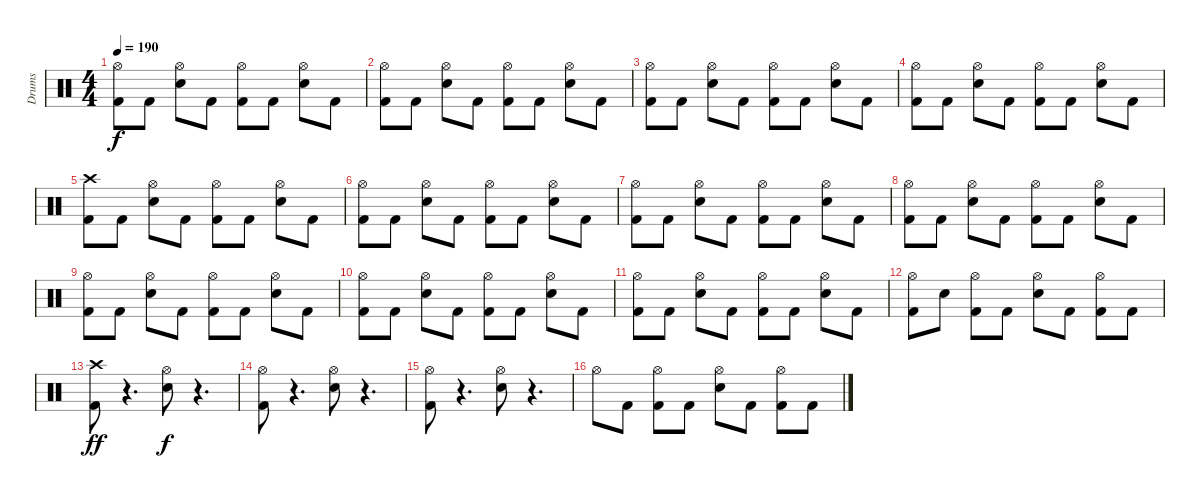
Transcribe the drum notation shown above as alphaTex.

\track ("Drums" "Drums") {instrument percussion}
\staff {score}
\articulation defaults
\ts (4 4)
\tempo 190
\clef neutral
\ks c
("Kick (hit) 2" "Hi-Hat (open)").8{dy f} "Kick (hit) 2".8 ("Snare (hit) 2" "Hi-Hat (open)").8 "Kick (hit) 2".8 ("Kick (hit) 2" "Hi-Hat (open)").8 "Kick (hit) 2".8 ("Snare (hit) 2" "Hi-Hat (open)").8 "Kick (hit) 2".8 |
("Kick (hit) 2" "Hi-Hat (open)").8 "Kick (hit) 2".8 ("Snare (hit) 2" "Hi-Hat (open)").8 "Kick (hit) 2".8 ("Kick (hit) 2" "Hi-Hat (open)").8 "Kick (hit) 2".8 ("Snare (hit) 2" "Hi-Hat (open)").8 "Kick (hit) 2".8 |
("Kick (hit) 2" "Hi-Hat (open)").8 "Kick (hit) 2".8 ("Snare (hit) 2" "Hi-Hat (open)").8 "Kick (hit) 2".8 ("Kick (hit) 2" "Hi-Hat (open)").8 "Kick (hit) 2".8 ("Snare (hit) 2" "Hi-Hat (open)").8 "Kick (hit) 2".8 |
("Kick (hit) 2" "Hi-Hat (open)").8 "Kick (hit) 2".8 ("Snare (hit) 2" "Hi-Hat (open)").8 "Kick (hit) 2".8 ("Kick (hit) 2" "Hi-Hat (open)").8 "Kick (hit) 2".8 ("Snare (hit) 2" "Hi-Hat (open)").8 "Kick (hit) 2".8 |
("Kick (hit) 2" "Crash high (hit)").8 "Kick (hit) 2".8 ("Snare (hit) 2" "Hi-Hat (open)").8 "Kick (hit) 2".8 ("Kick (hit) 2" "Hi-Hat (open)").8 "Kick (hit) 2".8 ("Snare (hit) 2" "Hi-Hat (open)").8 "Kick (hit) 2".8 |
("Kick (hit) 2" "Hi-Hat (open)").8 "Kick (hit) 2".8 ("Snare (hit) 2" "Hi-Hat (open)").8 "Kick (hit) 2".8 ("Kick (hit) 2" "Hi-Hat (open)").8 "Kick (hit) 2".8 ("Snare (hit) 2" "Hi-Hat (open)").8 "Kick (hit) 2".8 |
("Kick (hit) 2" "Hi-Hat (open)").8 "Kick (hit) 2".8 ("Snare (hit) 2" "Hi-Hat (open)").8 "Kick (hit) 2".8 ("Kick (hit) 2" "Hi-Hat (open)").8 "Kick (hit) 2".8 ("Snare (hit) 2" "Hi-Hat (open)").8 "Kick (hit) 2".8 |
("Kick (hit) 2" "Hi-Hat (open)").8 "Kick (hit) 2".8 ("Snare (hit) 2" "Hi-Hat (open)").8 "Kick (hit) 2".8 ("Kick (hit) 2" "Hi-Hat (open)").8 "Kick (hit) 2".8 ("Snare (hit) 2" "Hi-Hat (open)").8 "Kick (hit) 2".8 |
("Kick (hit) 2" "Hi-Hat (open)").8 "Kick (hit) 2".8 ("Snare (hit) 2" "Hi-Hat (open)").8 "Kick (hit) 2".8 ("Kick (hit) 2" "Hi-Hat (open)").8 "Kick (hit) 2".8 ("Snare (hit) 2" "Hi-Hat (open)").8 "Kick (hit) 2".8 |
("Kick (hit) 2" "Hi-Hat (open)").8 "Kick (hit) 2".8 ("Snare (hit) 2" "Hi-Hat (open)").8 "Kick (hit) 2".8 ("Kick (hit) 2" "Hi-Hat (open)").8 "Kick (hit) 2".8 ("Snare (hit) 2" "Hi-Hat (open)").8 "Kick (hit) 2".8 |
("Kick (hit) 2" "Hi-Hat (open)").8 "Kick (hit) 2".8 ("Snare (hit) 2" "Hi-Hat (open)").8 "Kick (hit) 2".8 ("Kick (hit) 2" "Hi-Hat (open)").8 "Kick (hit) 2".8 ("Snare (hit) 2" "Hi-Hat (open)").8 "Kick (hit) 2".8 |
("Kick (hit) 2" "Hi-Hat (open)").8 "Snare (hit) 2".8 ("Kick (hit) 2" "Hi-Hat (open)").8 "Kick (hit) 2".8 ("Snare (hit) 2" "Hi-Hat (open)").8 "Kick (hit) 2".8 ("Kick (hit) 2" "Hi-Hat (open)").8 "Kick (hit) 2".8 |
("Kick (hit) 2" "Crash high (hit)").8{dy ff} r.4{d} ("Snare (hit) 2" "Hi-Hat (open)").8{dy f} r.4{d} |
("Kick (hit) 2" "Hi-Hat (open)").8 r.4{d} ("Snare (hit) 2" "Hi-Hat (open)").8 r.4{d} |
("Kick (hit) 2" "Hi-Hat (open)").8 r.4{d} ("Snare (hit) 2" "Hi-Hat (open)").8 r.4{d} |
"Hi-Hat (open)".8 "Kick (hit) 2".8 ("Kick (hit) 2" "Hi-Hat (open)").8 "Kick (hit) 2".8 ("Snare (hit) 2" "Hi-Hat (open)").8 "Kick (hit) 2".8 ("Kick (hit) 2" "Hi-Hat (open)").8 "Kick (hit) 2".8
